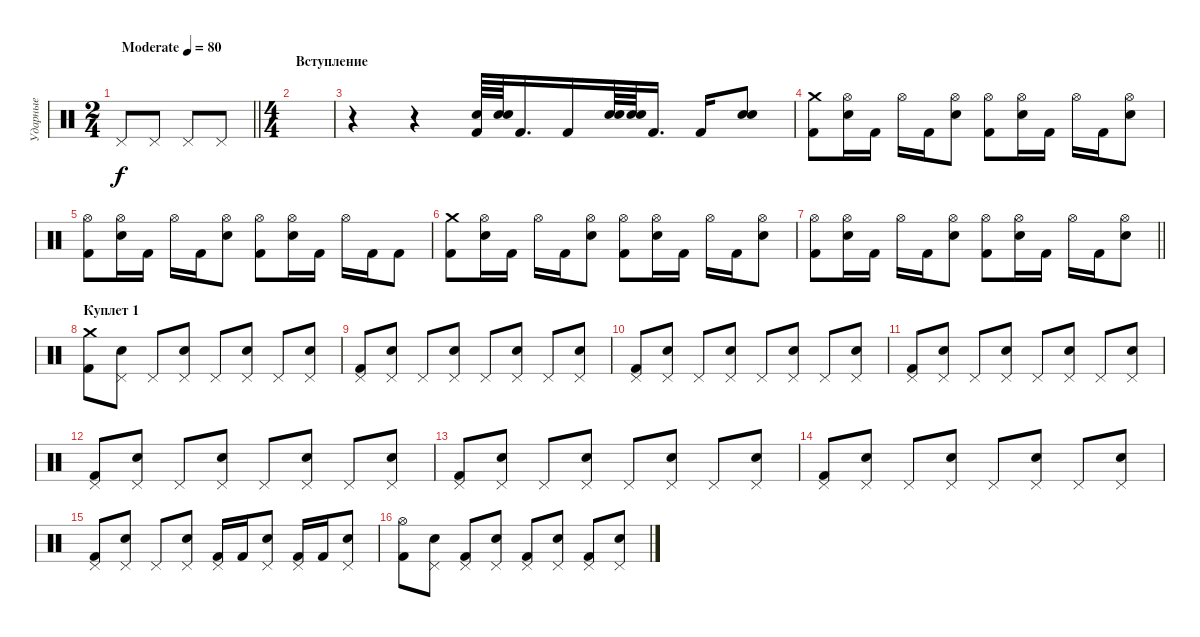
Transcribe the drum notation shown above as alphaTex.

\track ("Ударные" "Ударные") {instrument percussion}
\staff {score}
\articulation defaults
\ts (2 4)
\tempo (80 "Moderate")
\clef neutral
\barLineRight lightlight
\ks c "Pedal Hi-Hat (hit)".8{dy f} "Pedal Hi-Hat (hit)".8 "Pedal Hi-Hat (hit)".8 "Pedal Hi-Hat (hit)".8
|
\ts (4 4)
\section ("" "Вступление")
|
r.4 r.4 ("Kick (hit) 2" "Electric Snare (hit)").64 ("Snare (hit) 2" "Electric Snare (hit)").64 "Kick (hit) 2".16{d} "Kick (hit) 2".16 ("Snare (hit) 2" "Electric Snare (hit)").64 ("Snare (hit) 2" "Electric Snare (hit)").64 "Kick (hit) 2".16{d} "Kick (hit) 2".16 ("Snare (hit) 2" "Electric Snare (hit)").8 |
("Crash medium (hit)" "Kick (hit) 2").8 ("Hi-Hat (open)" "Electric Snare (hit)").16 "Kick (hit) 2".16 "Hi-Hat (open)".16 "Kick (hit) 2".16 ("Hi-Hat (open)" "Electric Snare (hit)").8 ("Hi-Hat (open)" "Kick (hit) 2").8 ("Hi-Hat (open)" "Electric Snare (hit)").16 "Kick (hit) 2".16 "Hi-Hat (open)".16 "Kick (hit) 2".16 ("Hi-Hat (open)" "Electric Snare (hit)").8 |
("Hi-Hat (open)" "Kick (hit) 2").8 ("Hi-Hat (open)" "Electric Snare (hit)").16 "Kick (hit) 2".16 "Hi-Hat (open)".16 "Kick (hit) 2".16 ("Hi-Hat (open)" "Electric Snare (hit)").8 ("Hi-Hat (open)" "Kick (hit) 2").8 ("Hi-Hat (open)" "Electric Snare (hit)").16 "Kick (hit) 2".16 "Hi-Hat (open)".16 "Kick (hit) 2".16 "Kick (hit) 2".8 |
("Crash medium (hit)" "Kick (hit) 2").8 ("Hi-Hat (open)" "Electric Snare (hit)").16 "Kick (hit) 2".16 "Hi-Hat (open)".16 "Kick (hit) 2".16 ("Hi-Hat (open)" "Electric Snare (hit)").8 ("Hi-Hat (open)" "Kick (hit) 2").8 ("Hi-Hat (open)" "Electric Snare (hit)").16 "Kick (hit) 2".16 "Hi-Hat (open)".16 "Kick (hit) 2".16 ("Hi-Hat (open)" "Electric Snare (hit)").8 |
\barLineRight lightlight
("Hi-Hat (open)" "Kick (hit) 2").8 ("Hi-Hat (open)" "Electric Snare (hit)").16 "Kick (hit) 2".16 "Hi-Hat (open)".16 "Kick (hit) 2".16 ("Hi-Hat (open)" "Electric Snare (hit)").8 ("Hi-Hat (open)" "Kick (hit) 2").8 ("Hi-Hat (open)" "Electric Snare (hit)").16 "Kick (hit) 2".16 "Hi-Hat (open)".16 "Kick (hit) 2".16 ("Hi-Hat (open)" "Electric Snare (hit)").8 |
\section ("" "Куплет 1")
("Crash medium (hit)" "Kick (hit) 2").8 ("Pedal Hi-Hat (hit)" "Electric Snare (hit)").8 "Pedal Hi-Hat (hit)".8 ("Pedal Hi-Hat (hit)" "Electric Snare (hit)").8 "Pedal Hi-Hat (hit)".8 ("Pedal Hi-Hat (hit)" "Electric Snare (hit)").8 "Pedal Hi-Hat (hit)".8 ("Pedal Hi-Hat (hit)" "Electric Snare (hit)").8 |
("Pedal Hi-Hat (hit)" "Kick (hit) 2").8 ("Pedal Hi-Hat (hit)" "Electric Snare (hit)").8 "Pedal Hi-Hat (hit)".8 ("Pedal Hi-Hat (hit)" "Electric Snare (hit)").8 "Pedal Hi-Hat (hit)".8 ("Pedal Hi-Hat (hit)" "Electric Snare (hit)").8 "Pedal Hi-Hat (hit)".8 ("Pedal Hi-Hat (hit)" "Electric Snare (hit)").8 |
("Pedal Hi-Hat (hit)" "Kick (hit) 2").8 ("Pedal Hi-Hat (hit)" "Electric Snare (hit)").8 "Pedal Hi-Hat (hit)".8 ("Pedal Hi-Hat (hit)" "Electric Snare (hit)").8 "Pedal Hi-Hat (hit)".8 ("Pedal Hi-Hat (hit)" "Electric Snare (hit)").8 "Pedal Hi-Hat (hit)".8 ("Pedal Hi-Hat (hit)" "Electric Snare (hit)").8 |
("Pedal Hi-Hat (hit)" "Kick (hit) 2").8 ("Pedal Hi-Hat (hit)" "Electric Snare (hit)").8 "Pedal Hi-Hat (hit)".8 ("Pedal Hi-Hat (hit)" "Electric Snare (hit)").8 "Pedal Hi-Hat (hit)".8 ("Pedal Hi-Hat (hit)" "Electric Snare (hit)").8 "Pedal Hi-Hat (hit)".8 ("Pedal Hi-Hat (hit)" "Electric Snare (hit)").8 |
("Pedal Hi-Hat (hit)" "Kick (hit) 2").8 ("Pedal Hi-Hat (hit)" "Electric Snare (hit)").8 "Pedal Hi-Hat (hit)".8 ("Pedal Hi-Hat (hit)" "Electric Snare (hit)").8 "Pedal Hi-Hat (hit)".8 ("Pedal Hi-Hat (hit)" "Electric Snare (hit)").8 "Pedal Hi-Hat (hit)".8 ("Pedal Hi-Hat (hit)" "Electric Snare (hit)").8 |
("Pedal Hi-Hat (hit)" "Kick (hit) 2").8 ("Pedal Hi-Hat (hit)" "Electric Snare (hit)").8 "Pedal Hi-Hat (hit)".8 ("Pedal Hi-Hat (hit)" "Electric Snare (hit)").8 "Pedal Hi-Hat (hit)".8 ("Pedal Hi-Hat (hit)" "Electric Snare (hit)").8 "Pedal Hi-Hat (hit)".8 ("Pedal Hi-Hat (hit)" "Electric Snare (hit)").8 |
("Pedal Hi-Hat (hit)" "Kick (hit) 2").8 ("Pedal Hi-Hat (hit)" "Electric Snare (hit)").8 "Pedal Hi-Hat (hit)".8 ("Pedal Hi-Hat (hit)" "Electric Snare (hit)").8 "Pedal Hi-Hat (hit)".8 ("Pedal Hi-Hat (hit)" "Electric Snare (hit)").8 "Pedal Hi-Hat (hit)".8 ("Pedal Hi-Hat (hit)" "Electric Snare (hit)").8 |
("Pedal Hi-Hat (hit)" "Kick (hit) 2").8 ("Pedal Hi-Hat (hit)" "Electric Snare (hit)").8 "Pedal Hi-Hat (hit)".8 ("Pedal Hi-Hat (hit)" "Electric Snare (hit)").8 ("Pedal Hi-Hat (hit)" "Kick (hit) 2").16 "Kick (hit) 2".16 ("Pedal Hi-Hat (hit)" "Electric Snare (hit)").8 ("Pedal Hi-Hat (hit)" "Kick (hit) 2").16 "Kick (hit) 2".16 ("Pedal Hi-Hat (hit)" "Electric Snare (hit)").8 |
("Hi-Hat (open)" "Kick (hit) 2").8 ("Pedal Hi-Hat (hit)" "Electric Snare (hit)").8 ("Pedal Hi-Hat (hit)" "Kick (hit) 2").8 ("Pedal Hi-Hat (hit)" "Electric Snare (hit)").8 ("Pedal Hi-Hat (hit)" "Kick (hit) 2").8 ("Pedal Hi-Hat (hit)" "Electric Snare (hit)").8 ("Pedal Hi-Hat (hit)" "Kick (hit) 2").8 ("Pedal Hi-Hat (hit)" "Electric Snare (hit)").8
